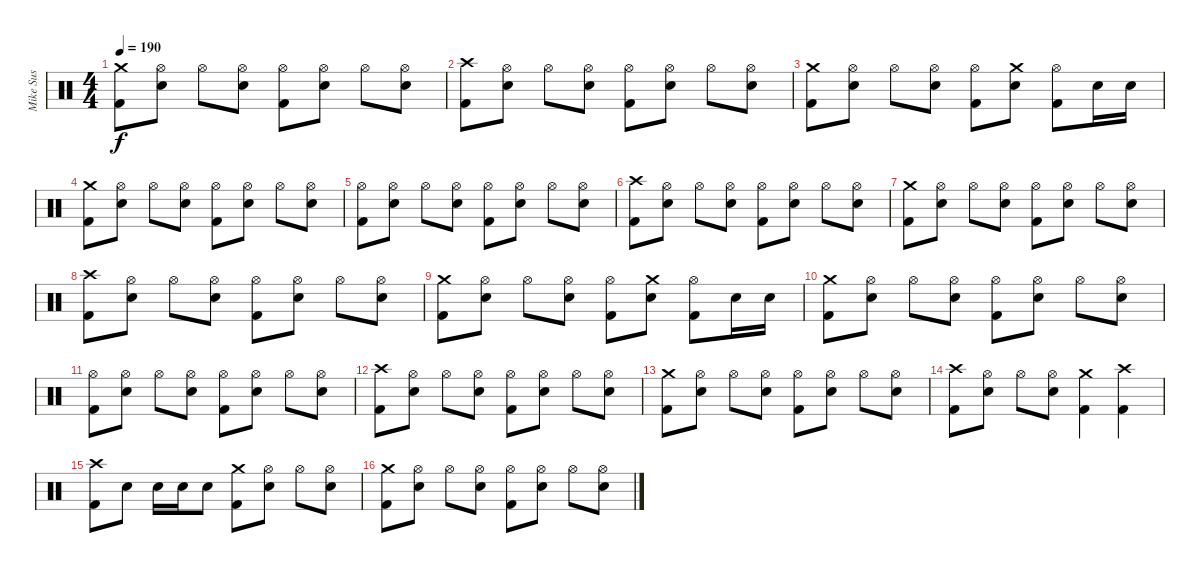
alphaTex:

\track ("Mike Sus" "Mike Sus") {instrument percussion}
\staff {score}
\articulation defaults
\ts (4 4)
\tempo 190
\clef neutral
\ks c
("Crash medium (hit)" "Kick (hit) 2").8{dy f} ("Hi-Hat (open)" "Electric Snare (hit)").8 "Hi-Hat (open)".8 ("Hi-Hat (open)" "Electric Snare (hit)").8 ("Hi-Hat (open)" "Kick (hit) 2").8 ("Hi-Hat (open)" "Electric Snare (hit)").8 "Hi-Hat (open)".8 ("Hi-Hat (open)" "Electric Snare (hit)").8 |
("Crash high (hit)" "Kick (hit) 2").8 ("Hi-Hat (open)" "Electric Snare (hit)").8 "Hi-Hat (open)".8 ("Hi-Hat (open)" "Electric Snare (hit)").8 ("Hi-Hat (open)" "Kick (hit) 2").8 ("Hi-Hat (open)" "Electric Snare (hit)").8 "Hi-Hat (open)".8 ("Hi-Hat (open)" "Electric Snare (hit)").8 |
("Crash medium (hit)" "Kick (hit) 2").8 ("Hi-Hat (open)" "Electric Snare (hit)").8 "Hi-Hat (open)".8 ("Hi-Hat (open)" "Electric Snare (hit)").8 ("Hi-Hat (open)" "Kick (hit) 2").8 ("Crash medium (hit)" "Electric Snare (hit)").8 ("Hi-Hat (open)" "Kick (hit) 2").8 "Electric Snare (hit)".16 "Electric Snare (hit)".16 |
("Crash medium (hit)" "Kick (hit) 2").8 ("Hi-Hat (open)" "Electric Snare (hit)").8 "Hi-Hat (open)".8 ("Hi-Hat (open)" "Electric Snare (hit)").8 ("Hi-Hat (open)" "Kick (hit) 2").8 ("Hi-Hat (open)" "Electric Snare (hit)").8 "Hi-Hat (open)".8 ("Hi-Hat (open)" "Electric Snare (hit)").8 |
("Hi-Hat (open)" "Kick (hit) 2").8 ("Hi-Hat (open)" "Electric Snare (hit)").8 "Hi-Hat (open)".8 ("Hi-Hat (open)" "Electric Snare (hit)").8 ("Hi-Hat (open)" "Kick (hit) 2").8 ("Hi-Hat (open)" "Electric Snare (hit)").8 "Hi-Hat (open)".8 ("Hi-Hat (open)" "Electric Snare (hit)").8 |
("Crash high (hit)" "Kick (hit) 2").8 ("Hi-Hat (open)" "Electric Snare (hit)").8 "Hi-Hat (open)".8 ("Hi-Hat (open)" "Electric Snare (hit)").8 ("Hi-Hat (open)" "Kick (hit) 2").8 ("Hi-Hat (open)" "Electric Snare (hit)").8 "Hi-Hat (open)".8 ("Hi-Hat (open)" "Electric Snare (hit)").8 |
("Crash medium (hit)" "Kick (hit) 2").8 ("Hi-Hat (open)" "Electric Snare (hit)").8 "Hi-Hat (open)".8 ("Hi-Hat (open)" "Electric Snare (hit)").8 ("Hi-Hat (open)" "Kick (hit) 2").8 ("Hi-Hat (open)" "Electric Snare (hit)").8 "Hi-Hat (open)".8 ("Hi-Hat (open)" "Electric Snare (hit)").8 |
("Crash high (hit)" "Kick (hit) 2").8 ("Hi-Hat (open)" "Electric Snare (hit)").8 "Hi-Hat (open)".8 ("Hi-Hat (open)" "Electric Snare (hit)").8 ("Hi-Hat (open)" "Kick (hit) 2").8 ("Hi-Hat (open)" "Electric Snare (hit)").8 "Hi-Hat (open)".8 ("Hi-Hat (open)" "Electric Snare (hit)").8 |
("Crash medium (hit)" "Kick (hit) 2").8 ("Hi-Hat (open)" "Electric Snare (hit)").8 "Hi-Hat (open)".8 ("Hi-Hat (open)" "Electric Snare (hit)").8 ("Hi-Hat (open)" "Kick (hit) 2").8 ("Crash medium (hit)" "Electric Snare (hit)").8 ("Hi-Hat (open)" "Kick (hit) 2").8 "Electric Snare (hit)".16 "Electric Snare (hit)".16 |
("Crash medium (hit)" "Kick (hit) 2").8 ("Hi-Hat (open)" "Electric Snare (hit)").8 "Hi-Hat (open)".8 ("Hi-Hat (open)" "Electric Snare (hit)").8 ("Hi-Hat (open)" "Kick (hit) 2").8 ("Hi-Hat (open)" "Electric Snare (hit)").8 "Hi-Hat (open)".8 ("Hi-Hat (open)" "Electric Snare (hit)").8 |
("Hi-Hat (open)" "Kick (hit) 2").8 ("Hi-Hat (open)" "Electric Snare (hit)").8 "Hi-Hat (open)".8 ("Hi-Hat (open)" "Electric Snare (hit)").8 ("Hi-Hat (open)" "Kick (hit) 2").8 ("Hi-Hat (open)" "Electric Snare (hit)").8 "Hi-Hat (open)".8 ("Hi-Hat (open)" "Electric Snare (hit)").8 |
("Crash high (hit)" "Kick (hit) 2").8 ("Hi-Hat (open)" "Electric Snare (hit)").8 "Hi-Hat (open)".8 ("Hi-Hat (open)" "Electric Snare (hit)").8 ("Hi-Hat (open)" "Kick (hit) 2").8 ("Hi-Hat (open)" "Electric Snare (hit)").8 "Hi-Hat (open)".8 ("Hi-Hat (open)" "Electric Snare (hit)").8 |
("Crash medium (hit)" "Kick (hit) 2").8 ("Hi-Hat (open)" "Electric Snare (hit)").8 "Hi-Hat (open)".8 ("Hi-Hat (open)" "Electric Snare (hit)").8 ("Hi-Hat (open)" "Kick (hit) 2").8 ("Hi-Hat (open)" "Electric Snare (hit)").8 "Hi-Hat (open)".8 ("Hi-Hat (open)" "Electric Snare (hit)").8 |
("Crash high (hit)" "Kick (hit) 2").8 ("Hi-Hat (open)" "Electric Snare (hit)").8 "Hi-Hat (open)".8 ("Hi-Hat (open)" "Electric Snare (hit)").8 ("Crash medium (hit)" "Kick (hit) 2").4 ("Crash high (hit)" "Kick (hit) 2").4 |
("Crash high (hit)" "Kick (hit) 2").8 "Electric Snare (hit)".8 "Electric Snare (hit)".16 "Electric Snare (hit)".16 "Electric Snare (hit)".8 ("Crash medium (hit)" "Kick (hit) 2").8 ("Hi-Hat (open)" "Electric Snare (hit)").8 "Hi-Hat (open)".8 ("Hi-Hat (open)" "Electric Snare (hit)").8 |
("Crash medium (hit)" "Kick (hit) 2").8 ("Hi-Hat (open)" "Electric Snare (hit)").8 "Hi-Hat (open)".8 ("Hi-Hat (open)" "Electric Snare (hit)").8 ("Hi-Hat (open)" "Kick (hit) 2").8 ("Hi-Hat (open)" "Electric Snare (hit)").8 "Hi-Hat (open)".8 ("Hi-Hat (open)" "Electric Snare (hit)").8
